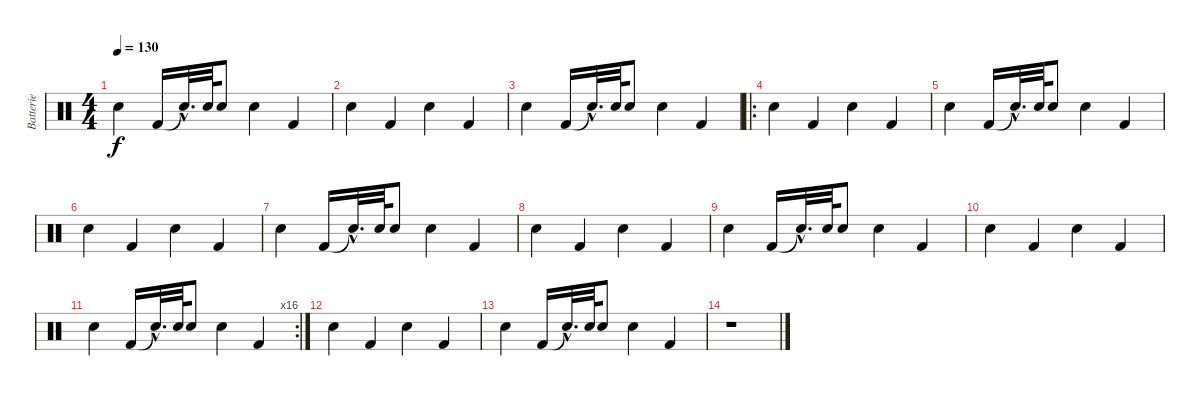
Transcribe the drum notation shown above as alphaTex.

\track ("Batterie" "Batterie") {instrument percussion}
\staff {score}
\articulation defaults
\ts (4 4)
\tempo 130
\clef neutral
\ks c "Electric Snare (hit)".4{dy f} "Kick (hit) 2".16 "Snare (hit)"{hac t}.32{d} "Electric Snare (hit)".64 "Electric Snare (hit)".8 "Electric Snare (hit)".4 "Kick (hit) 2".4
|
"Electric Snare (hit)".4 "Kick (hit) 2".4 "Electric Snare (hit)".4 "Kick (hit) 2".4 |
"Electric Snare (hit)".4 "Kick (hit) 2".16 "Snare (hit)"{hac t}.32{d} "Electric Snare (hit)".64 "Electric Snare (hit)".8 "Electric Snare (hit)".4 "Kick (hit) 2".4 |
\ro "Electric Snare (hit)".4 "Kick (hit) 2".4 "Electric Snare (hit)".4 "Kick (hit) 2".4
|
"Electric Snare (hit)".4 "Kick (hit) 2".16 "Snare (hit)"{hac t}.32{d} "Electric Snare (hit)".64 "Electric Snare (hit)".8 "Electric Snare (hit)".4 "Kick (hit) 2".4 |
"Electric Snare (hit)".4 "Kick (hit) 2".4 "Electric Snare (hit)".4 "Kick (hit) 2".4 |
"Electric Snare (hit)".4 "Kick (hit) 2".16 "Snare (hit)"{hac t}.32{d} "Electric Snare (hit)".64 "Electric Snare (hit)".8 "Electric Snare (hit)".4 "Kick (hit) 2".4 |
"Electric Snare (hit)".4 "Kick (hit) 2".4 "Electric Snare (hit)".4 "Kick (hit) 2".4 |
"Electric Snare (hit)".4 "Kick (hit) 2".16 "Snare (hit)"{hac t}.32{d} "Electric Snare (hit)".64 "Electric Snare (hit)".8 "Electric Snare (hit)".4 "Kick (hit) 2".4 |
"Electric Snare (hit)".4 "Kick (hit) 2".4 "Electric Snare (hit)".4 "Kick (hit) 2".4 |
\rc 16 "Electric Snare (hit)".4 "Kick (hit) 2".16 "Snare (hit)"{hac t}.32{d} "Electric Snare (hit)".64 "Electric Snare (hit)".8 "Electric Snare (hit)".4 "Kick (hit) 2".4
|
"Electric Snare (hit)".4 "Kick (hit) 2".4 "Electric Snare (hit)".4 "Kick (hit) 2".4 |
"Electric Snare (hit)".4 "Kick (hit) 2".16 "Snare (hit)"{hac t}.32{d} "Electric Snare (hit)".64 "Electric Snare (hit)".8 "Electric Snare (hit)".4 "Kick (hit) 2".4 |
r.1
